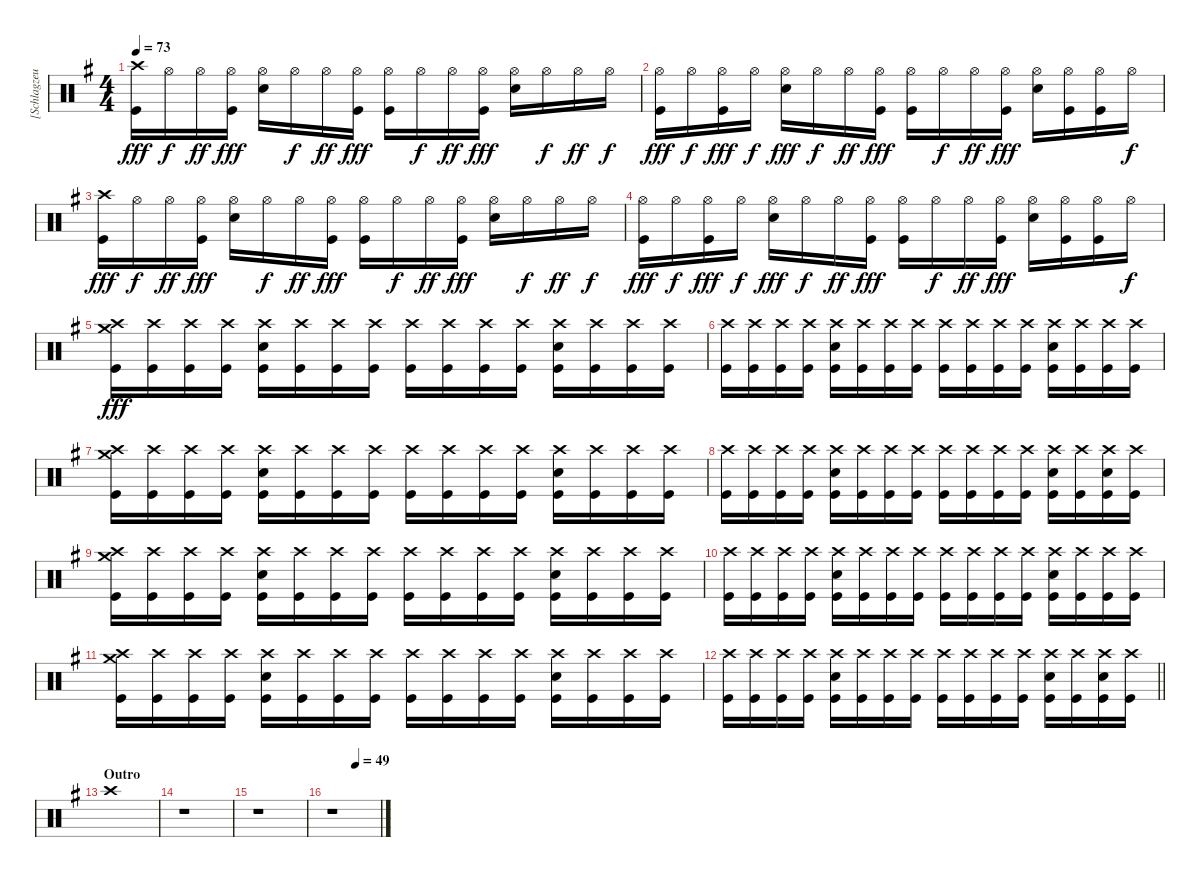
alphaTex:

\track ("[Schlagzeug]" "[Schlagzeu") {instrument percussion}
\staff {score}
\articulation defaults
\ts (4 4)
\tempo 73
\clef neutral
\ks eminor
("Crash high (hit)" "Kick (hit)").16{dy fff} "Hi-Hat (open)".16{dy f} "Hi-Hat (open)".16{dy ff} ("Hi-Hat (open)" "Kick (hit)").16{dy fff} ("Hi-Hat (open)" "Electric Snare (hit)").16 "Hi-Hat (open)".16{dy f} "Hi-Hat (open)".16{dy ff} ("Hi-Hat (open)" "Kick (hit)").16{dy fff} ("Hi-Hat (open)" "Kick (hit)").16 "Hi-Hat (open)".16{dy f} "Hi-Hat (open)".16{dy ff} ("Hi-Hat (open)" "Kick (hit)").16{dy fff} ("Hi-Hat (open)" "Electric Snare (hit)").16 "Hi-Hat (open)".16{dy f} "Hi-Hat (open)".16{dy ff} "Hi-Hat (open)".16{dy f} |
("Hi-Hat (open)" "Kick (hit)").16{dy fff} "Hi-Hat (open)".16{dy f} ("Hi-Hat (open)" "Kick (hit)").16{dy fff} "Hi-Hat (open)".16{dy f} ("Hi-Hat (open)" "Electric Snare (hit)").16{dy fff} "Hi-Hat (open)".16{dy f} "Hi-Hat (open)".16{dy ff} ("Hi-Hat (open)" "Kick (hit)").16{dy fff} ("Hi-Hat (open)" "Kick (hit)").16 "Hi-Hat (open)".16{dy f} "Hi-Hat (open)".16{dy ff} ("Hi-Hat (open)" "Kick (hit)").16{dy fff} ("Hi-Hat (open)" "Electric Snare (hit)").16 ("Hi-Hat (open)" "Kick (hit)").16 ("Hi-Hat (open)" "Kick (hit)").16 "Hi-Hat (open)".16{dy f} |
("Crash high (hit)" "Kick (hit)").16{dy fff} "Hi-Hat (open)".16{dy f} "Hi-Hat (open)".16{dy ff} ("Hi-Hat (open)" "Kick (hit)").16{dy fff} ("Hi-Hat (open)" "Electric Snare (hit)").16 "Hi-Hat (open)".16{dy f} "Hi-Hat (open)".16{dy ff} ("Hi-Hat (open)" "Kick (hit)").16{dy fff} ("Hi-Hat (open)" "Kick (hit)").16 "Hi-Hat (open)".16{dy f} "Hi-Hat (open)".16{dy ff} ("Hi-Hat (open)" "Kick (hit)").16{dy fff} ("Hi-Hat (open)" "Electric Snare (hit)").16 "Hi-Hat (open)".16{dy f} "Hi-Hat (open)".16{dy ff} "Hi-Hat (open)".16{dy f} |
("Hi-Hat (open)" "Kick (hit)").16{dy fff} "Hi-Hat (open)".16{dy f} ("Hi-Hat (open)" "Kick (hit)").16{dy fff} "Hi-Hat (open)".16{dy f} ("Hi-Hat (open)" "Electric Snare (hit)").16{dy fff} "Hi-Hat (open)".16{dy f} "Hi-Hat (open)".16{dy ff} ("Hi-Hat (open)" "Kick (hit)").16{dy fff} ("Hi-Hat (open)" "Kick (hit)").16 "Hi-Hat (open)".16{dy f} "Hi-Hat (open)".16{dy ff} ("Hi-Hat (open)" "Kick (hit)").16{dy fff} ("Hi-Hat (open)" "Electric Snare (hit)").16 ("Hi-Hat (open)" "Kick (hit)").16 ("Hi-Hat (open)" "Kick (hit)").16 "Hi-Hat (open)".16{dy f} |
("Crash high (hit)" "Kick (hit)" "Crash medium (hit)").16{dy fff} ("Crash high (hit)" "Kick (hit)").16 ("Crash high (hit)" "Kick (hit)").16 ("Crash high (hit)" "Kick (hit)").16 ("Crash high (hit)" "Kick (hit)" "Electric Snare (hit)").16 ("Crash high (hit)" "Kick (hit)").16 ("Crash high (hit)" "Kick (hit)").16 ("Crash high (hit)" "Kick (hit)").16 ("Crash high (hit)" "Kick (hit)").16 ("Crash high (hit)" "Kick (hit)").16 ("Crash high (hit)" "Kick (hit)").16 ("Crash high (hit)" "Kick (hit)").16 ("Crash high (hit)" "Kick (hit)" "Electric Snare (hit)").16 ("Crash high (hit)" "Kick (hit)").16 ("Crash high (hit)" "Kick (hit)").16 ("Crash high (hit)" "Kick (hit)").16 |
("Crash high (hit)" "Kick (hit)").16 ("Crash high (hit)" "Kick (hit)").16 ("Crash high (hit)" "Kick (hit)").16 ("Crash high (hit)" "Kick (hit)").16 ("Crash high (hit)" "Kick (hit)" "Electric Snare (hit)").16 ("Crash high (hit)" "Kick (hit)").16 ("Crash high (hit)" "Kick (hit)").16 ("Crash high (hit)" "Kick (hit)").16 ("Crash high (hit)" "Kick (hit)").16 ("Crash high (hit)" "Kick (hit)").16 ("Crash high (hit)" "Kick (hit)").16 ("Crash high (hit)" "Kick (hit)").16 ("Crash high (hit)" "Kick (hit)" "Electric Snare (hit)").16 ("Crash high (hit)" "Kick (hit)").16 ("Crash high (hit)" "Kick (hit)").16 ("Crash high (hit)" "Kick (hit)").16 |
("Crash high (hit)" "Kick (hit)" "Crash medium (hit)").16 ("Crash high (hit)" "Kick (hit)").16 ("Crash high (hit)" "Kick (hit)").16 ("Crash high (hit)" "Kick (hit)").16 ("Crash high (hit)" "Kick (hit)" "Electric Snare (hit)").16 ("Crash high (hit)" "Kick (hit)").16 ("Crash high (hit)" "Kick (hit)").16 ("Crash high (hit)" "Kick (hit)").16 ("Crash high (hit)" "Kick (hit)").16 ("Crash high (hit)" "Kick (hit)").16 ("Crash high (hit)" "Kick (hit)").16 ("Crash high (hit)" "Kick (hit)").16 ("Crash high (hit)" "Kick (hit)" "Electric Snare (hit)").16 ("Crash high (hit)" "Kick (hit)").16 ("Crash high (hit)" "Kick (hit)").16 ("Crash high (hit)" "Kick (hit)").16 |
("Crash high (hit)" "Kick (hit)").16 ("Crash high (hit)" "Kick (hit)").16 ("Crash high (hit)" "Kick (hit)").16 ("Crash high (hit)" "Kick (hit)").16 ("Crash high (hit)" "Kick (hit)" "Electric Snare (hit)").16 ("Crash high (hit)" "Kick (hit)").16 ("Crash high (hit)" "Kick (hit)").16 ("Crash high (hit)" "Kick (hit)").16 ("Crash high (hit)" "Kick (hit)").16 ("Crash high (hit)" "Kick (hit)").16 ("Crash high (hit)" "Kick (hit)").16 ("Crash high (hit)" "Kick (hit)").16 ("Crash high (hit)" "Kick (hit)" "Electric Snare (hit)").16 ("Crash high (hit)" "Kick (hit)").16 ("Crash high (hit)" "Kick (hit)" "Electric Snare (hit)").16 ("Crash high (hit)" "Kick (hit)").16 |
("Crash high (hit)" "Kick (hit)" "Crash medium (hit)").16 ("Crash high (hit)" "Kick (hit)").16 ("Crash high (hit)" "Kick (hit)").16 ("Crash high (hit)" "Kick (hit)").16 ("Crash high (hit)" "Kick (hit)" "Electric Snare (hit)").16 ("Crash high (hit)" "Kick (hit)").16 ("Crash high (hit)" "Kick (hit)").16 ("Crash high (hit)" "Kick (hit)").16 ("Crash high (hit)" "Kick (hit)").16 ("Crash high (hit)" "Kick (hit)").16 ("Crash high (hit)" "Kick (hit)").16 ("Crash high (hit)" "Kick (hit)").16 ("Crash high (hit)" "Kick (hit)" "Electric Snare (hit)").16 ("Crash high (hit)" "Kick (hit)").16 ("Crash high (hit)" "Kick (hit)").16 ("Crash high (hit)" "Kick (hit)").16 |
("Crash high (hit)" "Kick (hit)").16 ("Crash high (hit)" "Kick (hit)").16 ("Crash high (hit)" "Kick (hit)").16 ("Crash high (hit)" "Kick (hit)").16 ("Crash high (hit)" "Kick (hit)" "Electric Snare (hit)").16 ("Crash high (hit)" "Kick (hit)").16 ("Crash high (hit)" "Kick (hit)").16 ("Crash high (hit)" "Kick (hit)").16 ("Crash high (hit)" "Kick (hit)").16 ("Crash high (hit)" "Kick (hit)").16 ("Crash high (hit)" "Kick (hit)").16 ("Crash high (hit)" "Kick (hit)").16 ("Crash high (hit)" "Kick (hit)" "Electric Snare (hit)").16 ("Crash high (hit)" "Kick (hit)").16 ("Crash high (hit)" "Kick (hit)").16 ("Crash high (hit)" "Kick (hit)").16 |
("Crash high (hit)" "Kick (hit)" "Crash medium (hit)").16 ("Crash high (hit)" "Kick (hit)").16 ("Crash high (hit)" "Kick (hit)").16 ("Crash high (hit)" "Kick (hit)").16 ("Crash high (hit)" "Kick (hit)" "Electric Snare (hit)").16 ("Crash high (hit)" "Kick (hit)").16 ("Crash high (hit)" "Kick (hit)").16 ("Crash high (hit)" "Kick (hit)").16 ("Crash high (hit)" "Kick (hit)").16 ("Crash high (hit)" "Kick (hit)").16 ("Crash high (hit)" "Kick (hit)").16 ("Crash high (hit)" "Kick (hit)").16 ("Crash high (hit)" "Kick (hit)" "Electric Snare (hit)").16 ("Crash high (hit)" "Kick (hit)").16 ("Crash high (hit)" "Kick (hit)").16 ("Crash high (hit)" "Kick (hit)").16 |
\barLineRight lightlight
("Crash high (hit)" "Kick (hit)").16 ("Crash high (hit)" "Kick (hit)").16 ("Crash high (hit)" "Kick (hit)").16 ("Crash high (hit)" "Kick (hit)").16 ("Crash high (hit)" "Kick (hit)" "Electric Snare (hit)").16 ("Crash high (hit)" "Kick (hit)").16 ("Crash high (hit)" "Kick (hit)").16 ("Crash high (hit)" "Kick (hit)").16 ("Crash high (hit)" "Kick (hit)").16 ("Crash high (hit)" "Kick (hit)").16 ("Crash high (hit)" "Kick (hit)").16 ("Crash high (hit)" "Kick (hit)").16 ("Crash high (hit)" "Kick (hit)" "Electric Snare (hit)").16 ("Crash high (hit)" "Kick (hit)").16 ("Crash high (hit)" "Kick (hit)" "Electric Snare (hit)").16 ("Crash high (hit)" "Kick (hit)").16 |
\section ("" "Outro")
"Crash high (hit)".1 |
r.1 |
r.1 |
\tempo (49 0.5)
r.1
